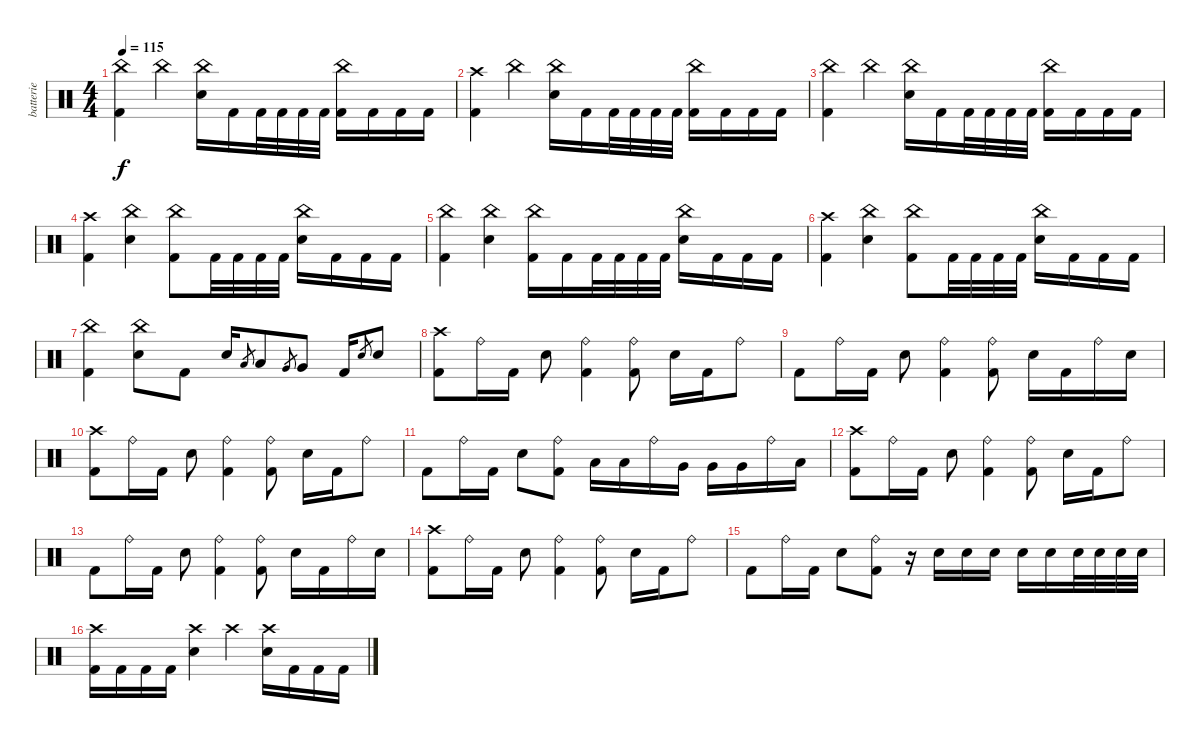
\track ("batterie" "batterie") {instrument percussion}
\staff {score}
\articulation defaults
\ts (4 4)
\tempo 115
\clef neutral
\ks c
("China (hit)" "Kick (hit) 2").4{dy f} "China (hit)".4 ("China (hit)" "Electric Snare (hit)").16 "Kick (hit) 2".16 "Kick (hit) 2".32 "Kick (hit) 2".32 "Kick (hit) 2".32 "Kick (hit) 2".32 ("China (hit)" "Kick (hit) 2").16 "Kick (hit) 2".16 "Kick (hit) 2".16 "Kick (hit) 2".16 |
("Crash high (hit)" "Kick (hit) 2").4 "China (hit)".4 ("China (hit)" "Electric Snare (hit)").16 "Kick (hit) 2".16 "Kick (hit) 2".32 "Kick (hit) 2".32 "Kick (hit) 2".32 "Kick (hit) 2".32 ("China (hit)" "Kick (hit) 2").16 "Kick (hit) 2".16 "Kick (hit) 2".16 "Kick (hit) 2".16 |
("China (hit)" "Kick (hit) 2").4 "China (hit)".4 ("China (hit)" "Electric Snare (hit)").16 "Kick (hit) 2".16 "Kick (hit) 2".32 "Kick (hit) 2".32 "Kick (hit) 2".32 "Kick (hit) 2".32 ("China (hit)" "Kick (hit) 2").16 "Kick (hit) 2".16 "Kick (hit) 2".16 "Kick (hit) 2".16 |
("Crash high (hit)" "Kick (hit) 2").4 ("China (hit)" "Electric Snare (hit)").4 ("China (hit)" "Kick (hit) 2").8 "Kick (hit) 2".32 "Kick (hit) 2".32 "Kick (hit) 2".32 "Kick (hit) 2".32 ("China (hit)" "Electric Snare (hit)").16 "Kick (hit) 2".16 "Kick (hit) 2".16 "Kick (hit) 2".16 |
("China (hit)" "Kick (hit) 2").4 ("China (hit)" "Electric Snare (hit)").4 ("China (hit)" "Kick (hit) 2").16 "Kick (hit) 2".16 "Kick (hit) 2".32 "Kick (hit) 2".32 "Kick (hit) 2".32 "Kick (hit) 2".32 ("China (hit)" "Electric Snare (hit)").16 "Kick (hit) 2".16 "Kick (hit) 2".16 "Kick (hit) 2".16 |
("Crash high (hit)" "Kick (hit) 2").4 ("China (hit)" "Electric Snare (hit)").4 ("China (hit)" "Kick (hit) 2").8 "Kick (hit) 2".32 "Kick (hit) 2".32 "Kick (hit) 2".32 "Kick (hit) 2".32 ("China (hit)" "Electric Snare (hit)").16 "Kick (hit) 2".16 "Kick (hit) 2".16 "Kick (hit) 2".16 |
("China (hit)" "Kick (hit) 2").4 ("China (hit)" "Electric Snare (hit)").8 "Kick (hit) 2".8 "Electric Snare (hit)".16 "Low Tom (hit)".8{gr} "Low Tom (hit)".8 "Very Low Tom (hit)".8{gr} "Very Low Tom (hit)".8 "Kick (hit) 2".16 "Electric Snare (hit)".8{gr} "Electric Snare (hit)".8 |
("Crash high (hit)" "Kick (hit) 2").8 "Ride (bell)".16 "Kick (hit) 2".16 "Electric Snare (hit)".8 ("Ride (bell)" "Kick (hit) 2").4 ("Ride (bell)" "Kick (hit) 2").8 "Electric Snare (hit)".16 "Kick (hit) 2".16 "Ride (bell)".8 |
"Kick (hit) 2".8 "Ride (bell)".16 "Kick (hit) 2".16 "Electric Snare (hit)".8 ("Ride (bell)" "Kick (hit) 2").4 ("Ride (bell)" "Kick (hit) 2").8 "Electric Snare (hit)".16 "Kick (hit) 2".16 "Ride (bell)".16 "Electric Snare (hit)".16 |
("Crash high (hit)" "Kick (hit) 2").8 "Ride (bell)".16 "Kick (hit) 2".16 "Electric Snare (hit)".8 ("Ride (bell)" "Kick (hit) 2").4 ("Ride (bell)" "Kick (hit) 2").8 "Electric Snare (hit)".16 "Kick (hit) 2".16 "Ride (bell)".8 |
"Kick (hit) 2".8 "Ride (bell)".16 "Kick (hit) 2".16 "Electric Snare (hit)".8 ("Ride (bell)" "Kick (hit) 2").8 "Low Tom (hit)".16 "Low Tom (hit)".16 "Ride (bell)".16 "Very Low Tom (hit)".16 "Very Low Tom (hit)".16 "Very Low Tom (hit)".16 "Ride (bell)".16 "Low Floor Tom (hit)".16 |
("Crash high (hit)" "Kick (hit) 2").8 "Ride (bell)".16 "Kick (hit) 2".16 "Electric Snare (hit)".8 ("Ride (bell)" "Kick (hit) 2").4 ("Ride (bell)" "Kick (hit) 2").8 "Electric Snare (hit)".16 "Kick (hit) 2".16 "Ride (bell)".8 |
"Kick (hit) 2".8 "Ride (bell)".16 "Kick (hit) 2".16 "Electric Snare (hit)".8 ("Ride (bell)" "Kick (hit) 2").4 ("Ride (bell)" "Kick (hit) 2").8 "Electric Snare (hit)".16 "Kick (hit) 2".16 "Ride (bell)".16 "Electric Snare (hit)".16 |
("Crash high (hit)" "Kick (hit) 2").8 "Ride (bell)".16 "Kick (hit) 2".16 "Electric Snare (hit)".8 ("Ride (bell)" "Kick (hit) 2").4 ("Ride (bell)" "Kick (hit) 2").8 "Electric Snare (hit)".16 "Kick (hit) 2".16 "Ride (bell)".8 |
"Kick (hit) 2".8 "Ride (bell)".16 "Kick (hit) 2".16 "Electric Snare (hit)".8 ("Ride (bell)" "Kick (hit) 2").8 r.16 "Electric Snare (hit)".16 "Electric Snare (hit)".16 "Electric Snare (hit)".16 "Electric Snare (hit)".16 "Electric Snare (hit)".16 "Electric Snare (hit)".32 "Electric Snare (hit)".32 "Electric Snare (hit)".32 "Electric Snare (hit)".32 |
("Crash high (hit)" "Kick (hit) 2").16 "Kick (hit) 2".16 "Kick (hit) 2".16 "Kick (hit) 2".16 ("Crash high (hit)" "Electric Snare (hit)").4 "Crash high (hit)".4 ("Crash high (hit)" "Electric Snare (hit)").16 "Kick (hit) 2".16 "Kick (hit) 2".16 "Kick (hit) 2".16
